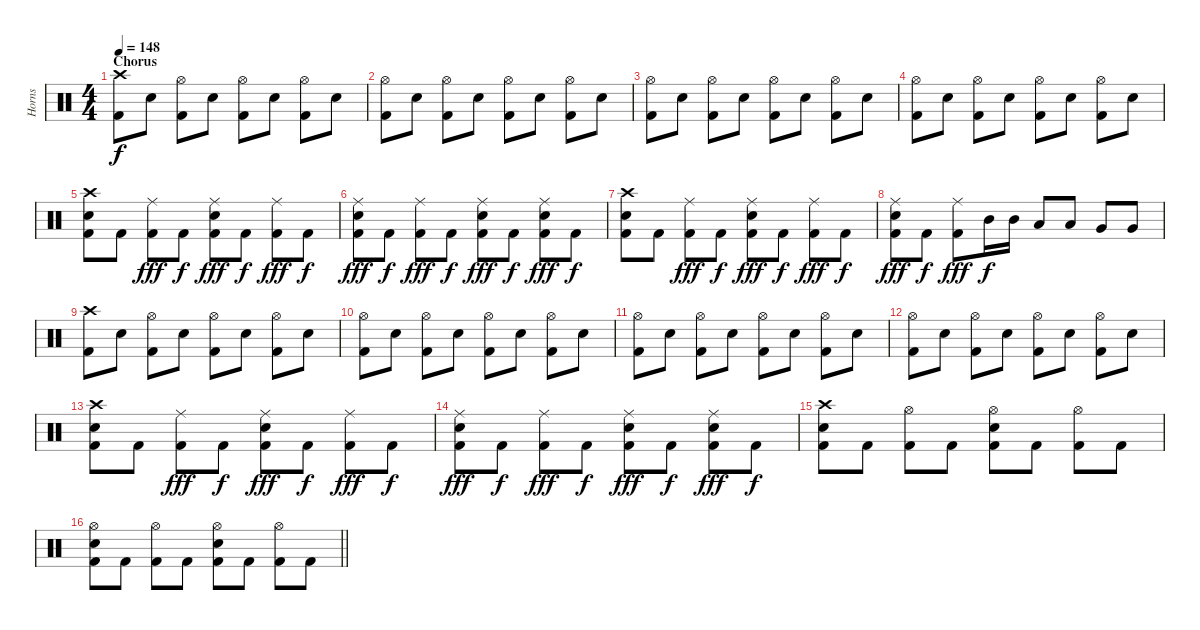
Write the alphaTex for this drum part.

\track ("Horns" "Horns") {instrument percussion}
\staff {score}
\articulation defaults
\ts (4 4)
\section ("" "Chorus")
\tempo 148
\clef neutral
\ks c
("Crash high (hit)" "Kick (hit) 2").8{dy f} "Snare (hit) 2".8 ("Hi-Hat (open)" "Kick (hit) 2").8 "Snare (hit) 2".8 ("Hi-Hat (open)" "Kick (hit) 2").8 "Snare (hit) 2".8 ("Hi-Hat (open)" "Kick (hit) 2").8 "Snare (hit) 2".8 |
("Hi-Hat (open)" "Kick (hit) 2").8 "Snare (hit) 2".8 ("Hi-Hat (open)" "Kick (hit) 2").8 "Snare (hit) 2".8 ("Hi-Hat (open)" "Kick (hit) 2").8 "Snare (hit) 2".8 ("Hi-Hat (open)" "Kick (hit) 2").8 "Snare (hit) 2".8 |
("Hi-Hat (open)" "Kick (hit) 2").8 "Snare (hit) 2".8 ("Hi-Hat (open)" "Kick (hit) 2").8 "Snare (hit) 2".8 ("Hi-Hat (open)" "Kick (hit) 2").8 "Snare (hit) 2".8 ("Hi-Hat (open)" "Kick (hit) 2").8 "Snare (hit) 2".8 |
("Hi-Hat (open)" "Kick (hit) 2").8 "Snare (hit) 2".8 ("Hi-Hat (open)" "Kick (hit) 2").8 "Snare (hit) 2".8 ("Hi-Hat (open)" "Kick (hit) 2").8 "Snare (hit) 2".8 ("Hi-Hat (open)" "Kick (hit) 2").8 "Snare (hit) 2".8 |
("Crash high (hit)" "Snare (hit) 2" "Kick (hit) 2").8 "Kick (hit) 2".8 ("Ride (middle)" "Kick (hit) 2").8{dy fff} "Kick (hit) 2".8{dy f} ("Ride (middle)" "Snare (hit) 2" "Kick (hit) 2").8{dy fff} "Kick (hit) 2".8{dy f} ("Ride (middle)" "Kick (hit) 2").8{dy fff} "Kick (hit) 2".8{dy f} |
("Ride (middle)" "Snare (hit) 2" "Kick (hit) 2").8{dy fff} "Kick (hit) 2".8{dy f} ("Ride (middle)" "Kick (hit) 2").8{dy fff} "Kick (hit) 2".8{dy f} ("Ride (middle)" "Snare (hit) 2" "Kick (hit) 2").8{dy fff} "Kick (hit) 2".8{dy f} ("Ride (middle)" "Snare (hit) 2" "Kick (hit) 2").8{dy fff} "Kick (hit) 2".8{dy f} |
("Crash high (hit)" "Snare (hit) 2" "Kick (hit) 2").8 "Kick (hit) 2".8 ("Ride (middle)" "Kick (hit) 2").8{dy fff} "Kick (hit) 2".8{dy f} ("Ride (middle)" "Snare (hit) 2" "Kick (hit) 2").8{dy fff} "Kick (hit) 2".8{dy f} ("Ride (middle)" "Kick (hit) 2").8{dy fff} "Kick (hit) 2".8{dy f} |
("Ride (middle)" "Snare (hit) 2" "Kick (hit) 2").8{dy fff} "Kick (hit) 2".8{dy f} ("Ride (middle)" "Kick (hit) 2").8{dy fff} "Mid Tom (hit)".16{dy f} "Mid Tom (hit)".16 "Low Tom (hit)".8 "Low Tom (hit)".8 "Very Low Tom (hit)".8 "Very Low Tom (hit)".8 |
("Crash high (hit)" "Kick (hit) 2").8 "Snare (hit) 2".8 ("Hi-Hat (open)" "Kick (hit) 2").8 "Snare (hit) 2".8 ("Hi-Hat (open)" "Kick (hit) 2").8 "Snare (hit) 2".8 ("Hi-Hat (open)" "Kick (hit) 2").8 "Snare (hit) 2".8 |
("Hi-Hat (open)" "Kick (hit) 2").8 "Snare (hit) 2".8 ("Hi-Hat (open)" "Kick (hit) 2").8 "Snare (hit) 2".8 ("Hi-Hat (open)" "Kick (hit) 2").8 "Snare (hit) 2".8 ("Hi-Hat (open)" "Kick (hit) 2").8 "Snare (hit) 2".8 |
("Hi-Hat (open)" "Kick (hit) 2").8 "Snare (hit) 2".8 ("Hi-Hat (open)" "Kick (hit) 2").8 "Snare (hit) 2".8 ("Hi-Hat (open)" "Kick (hit) 2").8 "Snare (hit) 2".8 ("Hi-Hat (open)" "Kick (hit) 2").8 "Snare (hit) 2".8 |
("Hi-Hat (open)" "Kick (hit) 2").8 "Snare (hit) 2".8 ("Hi-Hat (open)" "Kick (hit) 2").8 "Snare (hit) 2".8 ("Hi-Hat (open)" "Kick (hit) 2").8 "Snare (hit) 2".8 ("Hi-Hat (open)" "Kick (hit) 2").8 "Snare (hit) 2".8 |
("Crash high (hit)" "Snare (hit) 2" "Kick (hit) 2").8 "Kick (hit) 2".8 ("Ride (middle)" "Kick (hit) 2").8{dy fff} "Kick (hit) 2".8{dy f} ("Ride (middle)" "Snare (hit) 2" "Kick (hit) 2").8{dy fff} "Kick (hit) 2".8{dy f} ("Ride (middle)" "Kick (hit) 2").8{dy fff} "Kick (hit) 2".8{dy f} |
("Ride (middle)" "Snare (hit) 2" "Kick (hit) 2").8{dy fff} "Kick (hit) 2".8{dy f} ("Ride (middle)" "Kick (hit) 2").8{dy fff} "Kick (hit) 2".8{dy f} ("Ride (middle)" "Snare (hit) 2" "Kick (hit) 2").8{dy fff} "Kick (hit) 2".8{dy f} ("Ride (middle)" "Snare (hit) 2" "Kick (hit) 2").8{dy fff} "Kick (hit) 2".8{dy f} |
("Crash high (hit)" "Snare (hit) 2" "Kick (hit) 2").8 "Kick (hit) 2".8 ("Hi-Hat (open)" "Kick (hit) 2").8 "Kick (hit) 2".8 ("Hi-Hat (open)" "Snare (hit) 2" "Kick (hit) 2").8 "Kick (hit) 2".8 ("Hi-Hat (open)" "Kick (hit) 2").8 "Kick (hit) 2".8 |
\barLineRight lightlight
("Hi-Hat (open)" "Snare (hit) 2" "Kick (hit) 2").8 "Kick (hit) 2".8 ("Hi-Hat (open)" "Kick (hit) 2").8 "Kick (hit) 2".8 ("Hi-Hat (open)" "Snare (hit) 2" "Kick (hit) 2").8 "Kick (hit) 2".8 ("Hi-Hat (open)" "Kick (hit) 2").8 "Kick (hit) 2".8
